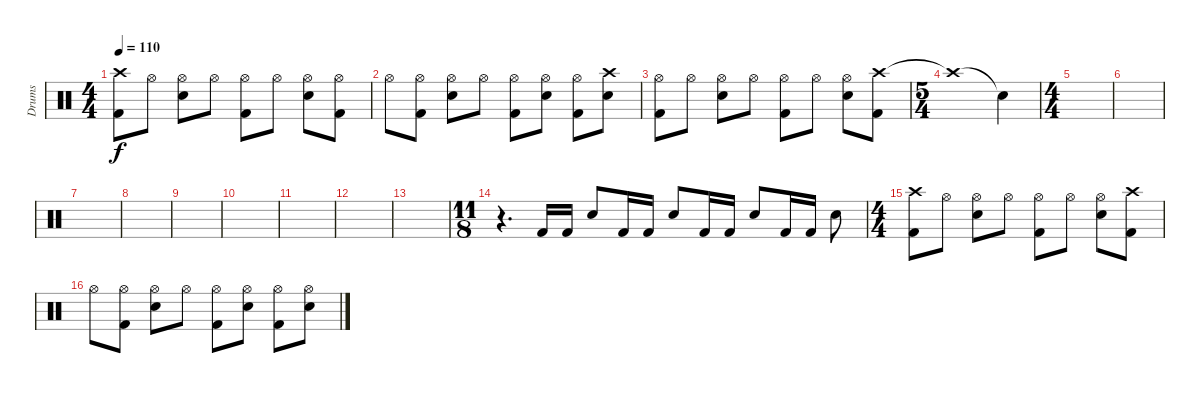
\track ("Drums" "Drums") {instrument percussion}
\staff {score}
\articulation defaults
\ts (4 4)
\tempo 110
\clef neutral
\ks c
("Crash high (hit)" "Kick (hit) 2").8{dy f} "Hi-Hat (open)".8 ("Hi-Hat (open)" "Electric Snare (hit)").8 "Hi-Hat (open)".8 ("Hi-Hat (open)" "Kick (hit) 2").8 "Hi-Hat (open)".8 ("Hi-Hat (open)" "Electric Snare (hit)").8 ("Hi-Hat (open)" "Kick (hit) 2").8 |
"Hi-Hat (open)".8 ("Hi-Hat (open)" "Kick (hit) 2").8 ("Hi-Hat (open)" "Electric Snare (hit)").8 "Hi-Hat (open)".8 ("Hi-Hat (open)" "Kick (hit) 2").8 ("Hi-Hat (open)" "Electric Snare (hit)").8 ("Hi-Hat (open)" "Kick (hit) 2").8 ("Crash high (hit)" "Electric Snare (hit)").8 |
("Hi-Hat (open)" "Kick (hit) 2").8 "Hi-Hat (open)".8 ("Hi-Hat (open)" "Electric Snare (hit)").8 "Hi-Hat (open)".8 ("Hi-Hat (open)" "Kick (hit) 2").8 "Hi-Hat (open)".8 ("Hi-Hat (open)" "Electric Snare (hit)").8 ("Crash high (hit)" "Kick (hit) 2").8 |
\ts (5 4)
"Crash high (hit)"{t}.1 "Snare (hit)"{t}.4 |
\ts (4 4)
|
|
|
|
|
|
|
|
|
\ts (11 8)
r.4{d} "Kick (hit) 2".16 "Kick (hit) 2".16 "Electric Snare (hit)".8 "Kick (hit) 2".16 "Kick (hit) 2".16 "Electric Snare (hit)".8 "Kick (hit) 2".16 "Kick (hit) 2".16 "Electric Snare (hit)".8 "Kick (hit) 2".16 "Kick (hit) 2".16 "Electric Snare (hit)".8 |
\ts (4 4)
("Crash high (hit)" "Kick (hit) 2").8 "Hi-Hat (open)".8 ("Hi-Hat (open)" "Electric Snare (hit)").8 "Hi-Hat (open)".8 ("Hi-Hat (open)" "Kick (hit) 2").8 "Hi-Hat (open)".8 ("Hi-Hat (open)" "Electric Snare (hit)").8 ("Crash high (hit)" "Kick (hit) 2").8 |
"Hi-Hat (open)".8 ("Hi-Hat (open)" "Kick (hit) 2").8 ("Hi-Hat (open)" "Electric Snare (hit)").8 "Hi-Hat (open)".8 ("Hi-Hat (open)" "Kick (hit) 2").8 ("Hi-Hat (open)" "Electric Snare (hit)").8 ("Hi-Hat (open)" "Kick (hit) 2").8 ("Hi-Hat (open)" "Electric Snare (hit)").8
